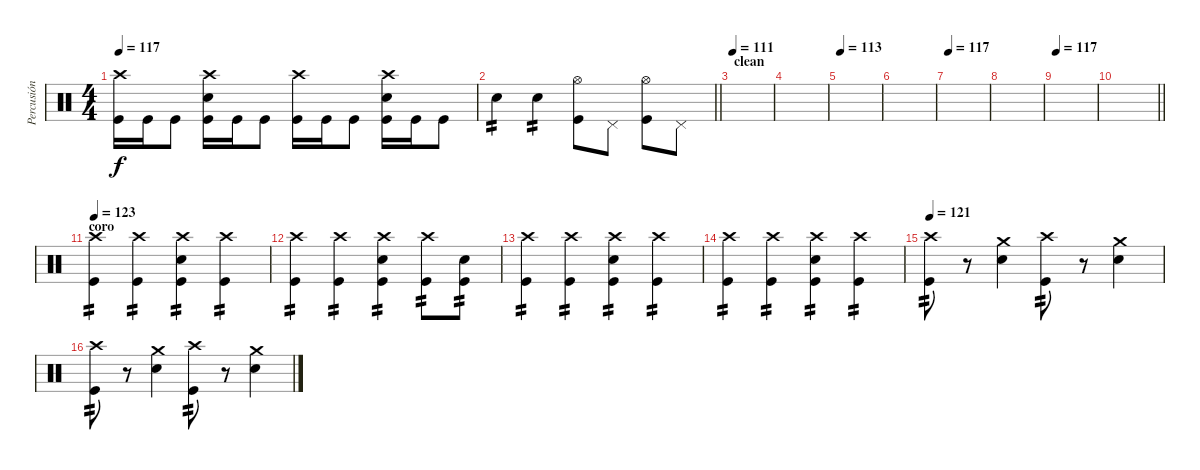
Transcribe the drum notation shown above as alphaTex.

\track ("Percusión" "Percusión") {instrument percussion}
\staff {score}
\articulation defaults
\ts (4 4)
\tempo 117
\clef neutral
\ks aminor
("Crash high (hit)" "Kick (hit)").16{dy f} "Kick (hit)".16 "Kick (hit)".8 ("Crash high (hit)" "Electric Snare (hit)" "Kick (hit)").16 "Kick (hit)".16 "Kick (hit)".8 ("Crash high (hit)" "Kick (hit)").16 "Kick (hit)".16 "Kick (hit)".8 ("Crash high (hit)" "Electric Snare (hit)" "Kick (hit)").16 "Kick (hit)".16 "Kick (hit)".8 |
\barLineRight lightlight "Electric Snare (hit)".4{tp 2} "Electric Snare (hit)".4{tp 2}
("Hi-Hat (open)" "Kick (hit)").8 "Pedal Hi-Hat (hit)".8 ("Hi-Hat (open)" "Kick (hit)").8 "Pedal Hi-Hat (hit)".8 |
\section ("" "clean")
\tempo 111
|
|
\tempo 113
|
|
\tempo 117
|
|
\tempo 117
|
\barLineRight lightlight
|
\section ("" "coro")
\tempo 123
("Crash high (hit)" "Kick (hit)").4{tp 2} ("Crash high (hit)" "Kick (hit)").4{tp 2} ("Crash high (hit)" "Electric Snare (hit)" "Kick (hit)").4{tp 2} ("Crash high (hit)" "Kick (hit)").4{tp 2} |
("Crash high (hit)" "Kick (hit)").4{tp 2} ("Crash high (hit)" "Kick (hit)").4{tp 2} ("Crash high (hit)" "Electric Snare (hit)" "Kick (hit)").4{tp 2} ("Crash high (hit)" "Kick (hit)").8{tp 2} ("Electric Snare (hit)" "Kick (hit)").8{tp 2} |
("Crash high (hit)" "Kick (hit)").4{tp 2} ("Crash high (hit)" "Kick (hit)").4{tp 2} ("Crash high (hit)" "Electric Snare (hit)" "Kick (hit)").4{tp 2} ("Crash high (hit)" "Kick (hit)").4{tp 2} |
("Crash high (hit)" "Kick (hit)").4{tp 2} ("Crash high (hit)" "Kick (hit)").4{tp 2} ("Crash high (hit)" "Electric Snare (hit)" "Kick (hit)").4{tp 2} ("Crash high (hit)" "Kick (hit)").4{tp 2} |
\tempo 121
("Crash high (hit)" "Kick (hit)").8{tp 2} r.8 ("Crash medium (hit)" "Electric Snare (hit)").4 ("Crash high (hit)" "Kick (hit)").8{tp 2} r.8 ("Crash medium (hit)" "Electric Snare (hit)").4 |
("Crash high (hit)" "Kick (hit)").8{tp 2} r.8 ("Crash medium (hit)" "Electric Snare (hit)").4 ("Crash high (hit)" "Kick (hit)").8{tp 2} r.8 ("Crash medium (hit)" "Electric Snare (hit)").4
